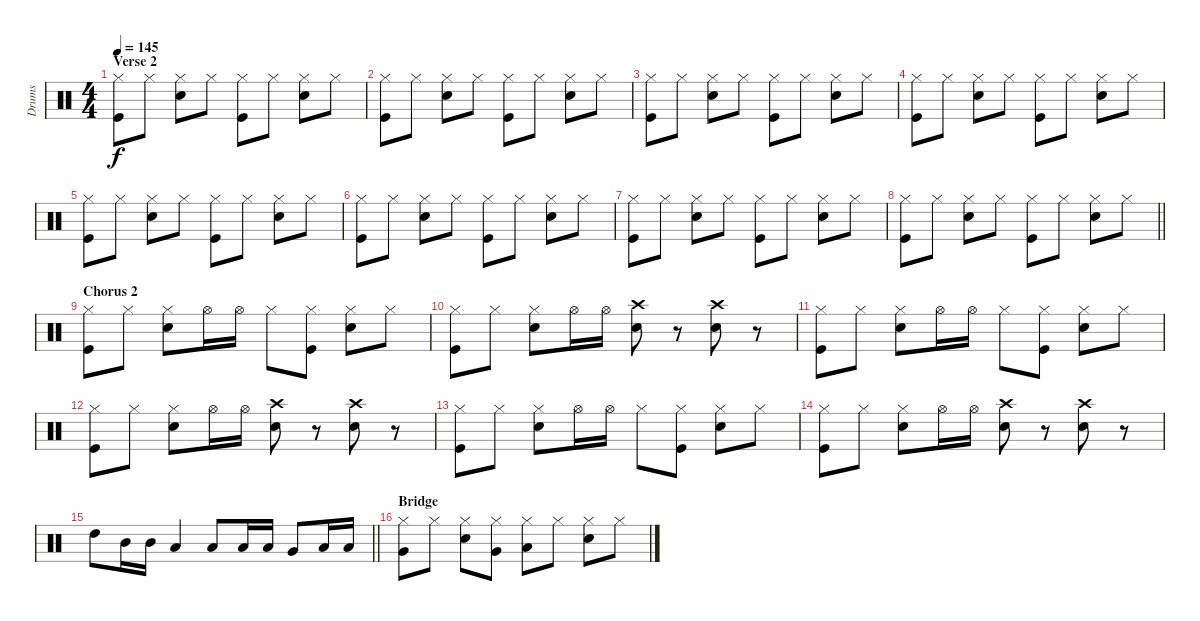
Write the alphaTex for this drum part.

\track ("Drums" "Drums") {instrument percussion}
\staff {score}
\articulation defaults
\ts (4 4)
\section ("" "Verse 2")
\tempo 145
\clef neutral
\ks c
("Hi-Hat (closed)" "Kick (hit)").8{dy f} "Hi-Hat (closed)".8 ("Hi-Hat (closed)" "Snare (hit) 2").8 "Hi-Hat (closed)".8 ("Hi-Hat (closed)" "Kick (hit)").8 "Hi-Hat (closed)".8 ("Hi-Hat (closed)" "Snare (hit) 2").8 "Hi-Hat (closed)".8 |
("Hi-Hat (closed)" "Kick (hit)").8 "Hi-Hat (closed)".8 ("Hi-Hat (closed)" "Snare (hit) 2").8 "Hi-Hat (closed)".8 ("Hi-Hat (closed)" "Kick (hit)").8 "Hi-Hat (closed)".8 ("Hi-Hat (closed)" "Snare (hit) 2").8 "Hi-Hat (closed)".8 |
("Hi-Hat (closed)" "Kick (hit)").8 "Hi-Hat (closed)".8 ("Hi-Hat (closed)" "Snare (hit) 2").8 "Hi-Hat (closed)".8 ("Hi-Hat (closed)" "Kick (hit)").8 "Hi-Hat (closed)".8 ("Hi-Hat (closed)" "Snare (hit) 2").8 "Hi-Hat (closed)".8 |
("Hi-Hat (closed)" "Kick (hit)").8 "Hi-Hat (closed)".8 ("Hi-Hat (closed)" "Snare (hit) 2").8 "Hi-Hat (closed)".8 ("Hi-Hat (closed)" "Kick (hit)").8 "Hi-Hat (closed)".8 ("Hi-Hat (closed)" "Snare (hit) 2").8 "Hi-Hat (closed)".8 |
("Hi-Hat (closed)" "Kick (hit)").8 "Hi-Hat (closed)".8 ("Hi-Hat (closed)" "Snare (hit) 2").8 "Hi-Hat (closed)".8 ("Hi-Hat (closed)" "Kick (hit)").8 "Hi-Hat (closed)".8 ("Hi-Hat (closed)" "Snare (hit) 2").8 "Hi-Hat (closed)".8 |
("Hi-Hat (closed)" "Kick (hit)").8 "Hi-Hat (closed)".8 ("Hi-Hat (closed)" "Snare (hit) 2").8 "Hi-Hat (closed)".8 ("Hi-Hat (closed)" "Kick (hit)").8 "Hi-Hat (closed)".8 ("Hi-Hat (closed)" "Snare (hit) 2").8 "Hi-Hat (closed)".8 |
("Hi-Hat (closed)" "Kick (hit)").8 "Hi-Hat (closed)".8 ("Hi-Hat (closed)" "Snare (hit) 2").8 "Hi-Hat (closed)".8 ("Hi-Hat (closed)" "Kick (hit)").8 "Hi-Hat (closed)".8 ("Hi-Hat (closed)" "Snare (hit) 2").8 "Hi-Hat (closed)".8 |
\barLineRight lightlight
("Hi-Hat (closed)" "Kick (hit)").8 "Hi-Hat (closed)".8 ("Hi-Hat (closed)" "Snare (hit) 2").8 "Hi-Hat (closed)".8 ("Hi-Hat (closed)" "Kick (hit)").8 "Hi-Hat (closed)".8 ("Hi-Hat (closed)" "Snare (hit) 2").8 "Hi-Hat (closed)".8 |
\section ("" "Chorus 2")
("Hi-Hat (closed)" "Kick (hit)").8 "Hi-Hat (closed)".8 ("Hi-Hat (closed)" "Snare (hit) 2").8 "Hi-Hat (open)".16 "Hi-Hat (open)".16 "Hi-Hat (closed)".8 ("Hi-Hat (closed)" "Kick (hit)").8 ("Hi-Hat (closed)" "Snare (hit) 2").8 "Hi-Hat (closed)".8 |
("Hi-Hat (closed)" "Kick (hit)").8 "Hi-Hat (closed)".8 ("Hi-Hat (closed)" "Snare (hit) 2").8 "Hi-Hat (open)".16 "Hi-Hat (open)".16 ("Crash high (hit)" "Snare (hit) 2").8 r.8 ("Crash high (hit)" "Snare (hit) 2").8 r.8 |
("Hi-Hat (closed)" "Kick (hit)").8 "Hi-Hat (closed)".8 ("Hi-Hat (closed)" "Snare (hit) 2").8 "Hi-Hat (open)".16 "Hi-Hat (open)".16 "Hi-Hat (closed)".8 ("Hi-Hat (closed)" "Kick (hit)").8 ("Hi-Hat (closed)" "Snare (hit) 2").8 "Hi-Hat (closed)".8 |
("Hi-Hat (closed)" "Kick (hit)").8 "Hi-Hat (closed)".8 ("Hi-Hat (closed)" "Snare (hit) 2").8 "Hi-Hat (open)".16 "Hi-Hat (open)".16 ("Crash high (hit)" "Snare (hit) 2").8 r.8 ("Crash high (hit)" "Snare (hit) 2").8 r.8 |
("Hi-Hat (closed)" "Kick (hit)").8 "Hi-Hat (closed)".8 ("Hi-Hat (closed)" "Snare (hit) 2").8 "Hi-Hat (open)".16 "Hi-Hat (open)".16 "Hi-Hat (closed)".8 ("Hi-Hat (closed)" "Kick (hit)").8 ("Hi-Hat (closed)" "Snare (hit) 2").8 "Hi-Hat (closed)".8 |
("Hi-Hat (closed)" "Kick (hit)").8 "Hi-Hat (closed)".8 ("Hi-Hat (closed)" "Snare (hit) 2").8 "Hi-Hat (open)".16 "Hi-Hat (open)".16 ("Crash high (hit)" "Snare (hit) 2").8 r.8 ("Crash high (hit)" "Snare (hit) 2").8 r.8 |
\barLineRight lightlight "High Tom (hit)".8 "Mid Tom (hit)".16 "Mid Tom (hit)".16 "Low Tom (hit)".4 "Low Tom (hit)".8 "Low Tom (hit)".16 "Low Tom (hit)".16 "Very Low Tom (hit)".8 "Low Floor Tom (hit)".16 "Low Floor Tom (hit)".16
|
\section ("" "Bridge")
("Hi-Hat (closed)" "Very Low Tom (hit)").8 "Hi-Hat (closed)".8 ("Hi-Hat (closed)" "Snare (hit) 2").8 ("Hi-Hat (closed)" "Very Low Tom (hit)").8 ("Hi-Hat (closed)" "Low Tom (hit)").8 "Hi-Hat (closed)".8 ("Hi-Hat (closed)" "Snare (hit) 2").8 "Hi-Hat (closed)".8
